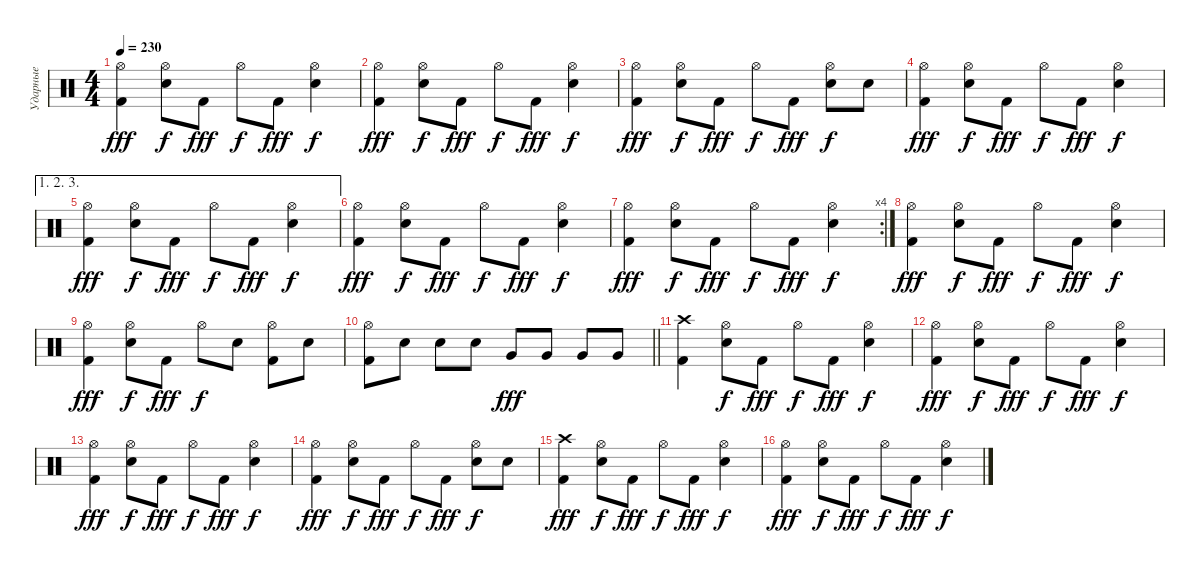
\track ("Ударные" "Ударные") {instrument percussion}
\staff
\articulation defaults
\ts (4 4)
\tempo 230
\clef neutral
\ks c
("Kick (hit) 2" "Hi-Hat (open)").4{dy fff} ("Snare (hit) 2" "Hi-Hat (open)").8{dy f} "Kick (hit) 2".8{dy fff} "Hi-Hat (open)".8{dy f} "Kick (hit) 2".8{dy fff} ("Snare (hit) 2" "Hi-Hat (open)").4{dy f} |
("Kick (hit) 2" "Hi-Hat (open)").4{dy fff} ("Snare (hit) 2" "Hi-Hat (open)").8{dy f} "Kick (hit) 2".8{dy fff} "Hi-Hat (open)".8{dy f} "Kick (hit) 2".8{dy fff} ("Snare (hit) 2" "Hi-Hat (open)").4{dy f} |
("Kick (hit) 2" "Hi-Hat (open)").4{dy fff} ("Snare (hit) 2" "Hi-Hat (open)").8{dy f} "Kick (hit) 2".8{dy fff} "Hi-Hat (open)".8{dy f} "Kick (hit) 2".8{dy fff} ("Snare (hit) 2" "Hi-Hat (open)").8{dy f} "Snare (hit) 2".8 |
("Kick (hit) 2" "Hi-Hat (open)").4{dy fff} ("Snare (hit) 2" "Hi-Hat (open)").8{dy f} "Kick (hit) 2".8{dy fff} "Hi-Hat (open)".8{dy f} "Kick (hit) 2".8{dy fff} ("Snare (hit) 2" "Hi-Hat (open)").4{dy f} |
\ae (1 2 3)
("Kick (hit) 2" "Hi-Hat (open)").4{dy fff} ("Snare (hit) 2" "Hi-Hat (open)").8{dy f} "Kick (hit) 2".8{dy fff} "Hi-Hat (open)".8{dy f} "Kick (hit) 2".8{dy fff} ("Snare (hit) 2" "Hi-Hat (open)").4{dy f} |
("Kick (hit) 2" "Hi-Hat (open)").4{dy fff} ("Snare (hit) 2" "Hi-Hat (open)").8{dy f} "Kick (hit) 2".8{dy fff} "Hi-Hat (open)".8{dy f} "Kick (hit) 2".8{dy fff} ("Snare (hit) 2" "Hi-Hat (open)").4{dy f} |
\rc 4
("Kick (hit) 2" "Hi-Hat (open)").4{dy fff} ("Snare (hit) 2" "Hi-Hat (open)").8{dy f} "Kick (hit) 2".8{dy fff} "Hi-Hat (open)".8{dy f} "Kick (hit) 2".8{dy fff} ("Snare (hit) 2" "Hi-Hat (open)").4{dy f} |
("Kick (hit) 2" "Hi-Hat (open)").4{dy fff} ("Snare (hit) 2" "Hi-Hat (open)").8{dy f} "Kick (hit) 2".8{dy fff} "Hi-Hat (open)".8{dy f} "Kick (hit) 2".8{dy fff} ("Snare (hit) 2" "Hi-Hat (open)").4{dy f} |
("Kick (hit) 2" "Hi-Hat (open)").4{dy fff} ("Snare (hit) 2" "Hi-Hat (open)").8{dy f} "Kick (hit) 2".8{dy fff} "Hi-Hat (open)".8{dy f} "Snare (hit) 2".8 ("Kick (hit) 2" "Hi-Hat (open)").8 "Snare (hit) 2".8 |
\barLineRight lightlight
("Kick (hit) 2" "Hi-Hat (open)").8 "Snare (hit) 2".8 "Snare (hit) 2".8 "Snare (hit) 2".8 "Very Low Tom (hit)".8{dy fff} "Very Low Tom (hit)".8 "Very Low Tom (hit)".8 "Very Low Tom (hit)".8 |
("Kick (hit) 2" "Crash high (hit)").4 ("Snare (hit) 2" "Hi-Hat (open)").8{dy f} "Kick (hit) 2".8{dy fff} "Hi-Hat (open)".8{dy f} "Kick (hit) 2".8{dy fff} ("Snare (hit) 2" "Hi-Hat (open)").4{dy f} |
("Kick (hit) 2" "Hi-Hat (open)").4{dy fff} ("Snare (hit) 2" "Hi-Hat (open)").8{dy f} "Kick (hit) 2".8{dy fff} "Hi-Hat (open)".8{dy f} "Kick (hit) 2".8{dy fff} ("Snare (hit) 2" "Hi-Hat (open)").4{dy f} |
("Kick (hit) 2" "Hi-Hat (open)").4{dy fff} ("Snare (hit) 2" "Hi-Hat (open)").8{dy f} "Kick (hit) 2".8{dy fff} "Hi-Hat (open)".8{dy f} "Kick (hit) 2".8{dy fff} ("Snare (hit) 2" "Hi-Hat (open)").4{dy f} |
("Kick (hit) 2" "Hi-Hat (open)").4{dy fff} ("Snare (hit) 2" "Hi-Hat (open)").8{dy f} "Kick (hit) 2".8{dy fff} "Hi-Hat (open)".8{dy f} "Kick (hit) 2".8{dy fff} ("Snare (hit) 2" "Hi-Hat (open)").8{dy f} "Snare (hit) 2".8 |
("Kick (hit) 2" "Crash high (hit)").4{dy fff} ("Snare (hit) 2" "Hi-Hat (open)").8{dy f} "Kick (hit) 2".8{dy fff} "Hi-Hat (open)".8{dy f} "Kick (hit) 2".8{dy fff} ("Snare (hit) 2" "Hi-Hat (open)").4{dy f} |
("Kick (hit) 2" "Hi-Hat (open)").4{dy fff} ("Snare (hit) 2" "Hi-Hat (open)").8{dy f} "Kick (hit) 2".8{dy fff} "Hi-Hat (open)".8{dy f} "Kick (hit) 2".8{dy fff} ("Snare (hit) 2" "Hi-Hat (open)").4{dy f}
